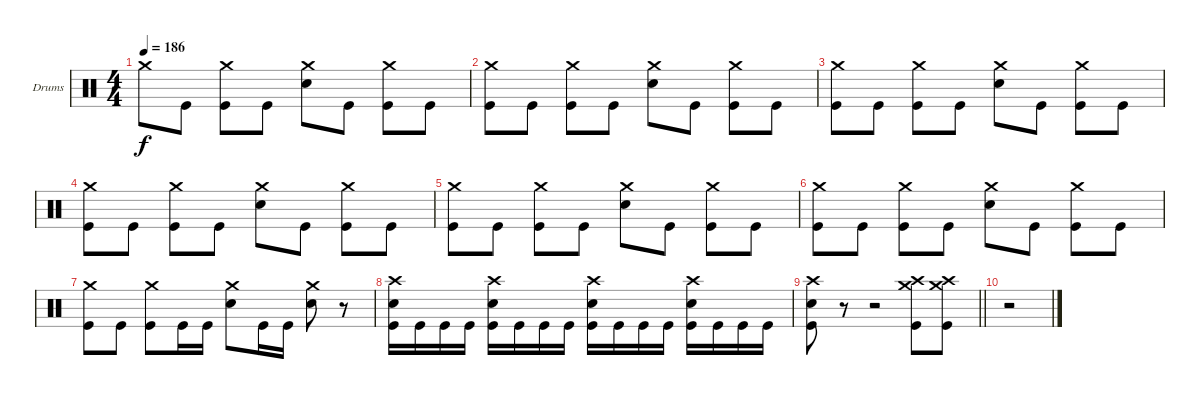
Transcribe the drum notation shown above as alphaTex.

\bracketExtendMode groupsimilarinstruments
\firstSystemTrackNameOrientation horizontal
\otherSystemsTrackNameOrientation horizontal
\track ("Drumkit" "Drums") {instrument percussion}
\staff {score}
\articulation defaults
\ts (4 4)
\tempo 186
\clef neutral
\scale
0.333333
\ks c "Crash medium (hit)".8{dy f} "Kick (hit)".8
("Crash medium (hit)" "Kick (hit)").8 "Kick (hit)".8 ("Crash medium (hit)" "Snare (hit) 2").8 "Kick (hit)".8 ("Crash medium (hit)" "Kick (hit)").8 "Kick (hit)".8 |
\scale
0.333333 ("Crash medium (hit)" "Kick (hit)").8 "Kick (hit)".8 ("Crash medium (hit)" "Kick (hit)").8 "Kick (hit)".8 ("Crash medium (hit)" "Snare (hit) 2").8 "Kick (hit)".8 ("Crash medium (hit)" "Kick (hit)").8 "Kick (hit)".8 |
\scale
0.333333 ("Crash medium (hit)" "Kick (hit)").8 "Kick (hit)".8 ("Crash medium (hit)" "Kick (hit)").8 "Kick (hit)".8 ("Crash medium (hit)" "Snare (hit) 2").8 "Kick (hit)".8 ("Crash medium (hit)" "Kick (hit)").8 "Kick (hit)".8 |
\scale
0.333333 ("Crash medium (hit)" "Kick (hit)").8 "Kick (hit)".8 ("Crash medium (hit)" "Kick (hit)").8 "Kick (hit)".8 ("Crash medium (hit)" "Snare (hit) 2").8 "Kick (hit)".8 ("Crash medium (hit)" "Kick (hit)").8 "Kick (hit)".8 |
\scale
0.333333 ("Crash medium (hit)" "Kick (hit)").8 "Kick (hit)".8 ("Crash medium (hit)" "Kick (hit)").8 "Kick (hit)".8 ("Crash medium (hit)" "Snare (hit) 2").8 "Kick (hit)".8 ("Crash medium (hit)" "Kick (hit)").8 "Kick (hit)".8 |
\scale
0.333333 ("Crash medium (hit)" "Kick (hit)").8 "Kick (hit)".8 ("Crash medium (hit)" "Kick (hit)").8 "Kick (hit)".8 ("Crash medium (hit)" "Snare (hit) 2").8 "Kick (hit)".8 ("Crash medium (hit)" "Kick (hit)").8 "Kick (hit)".8 |
\scale
0.333333 ("Crash medium (hit)" "Kick (hit)").8 "Kick (hit)".8 ("Crash medium (hit)" "Kick (hit)").8 "Kick (hit)".16 "Kick (hit)".16 ("Crash medium (hit)" "Snare (hit) 2").8 "Kick (hit)".16 "Kick (hit)".16 ("Crash medium (hit)" "Snare (hit) 2").8 r.8 |
\scale
0.333333 ("Crash high (hit)" "Snare (hit) 2" "Kick (hit)").16 "Kick (hit)".16 "Kick (hit)".16 "Kick (hit)".16 ("Crash high (hit)" "Snare (hit) 2" "Kick (hit)").16 "Kick (hit)".16 "Kick (hit)".16 "Kick (hit)".16 ("Crash high (hit)" "Snare (hit) 2" "Kick (hit)").16 "Kick (hit)".16 "Kick (hit)".16 "Kick (hit)".16 ("Crash high (hit)" "Snare (hit) 2" "Kick (hit)").16 "Kick (hit)".16 "Kick (hit)".16 "Kick (hit)".16 |
\barLineRight lightlight
("Crash high (hit)" "Snare (hit) 2" "Kick (hit)").8 r.8 r.2 ("Crash high (hit)" "Crash medium (hit)" "Kick (hit)").8 ("Crash high (hit)" "Crash medium (hit)" "Kick (hit)").8 |
r.2
